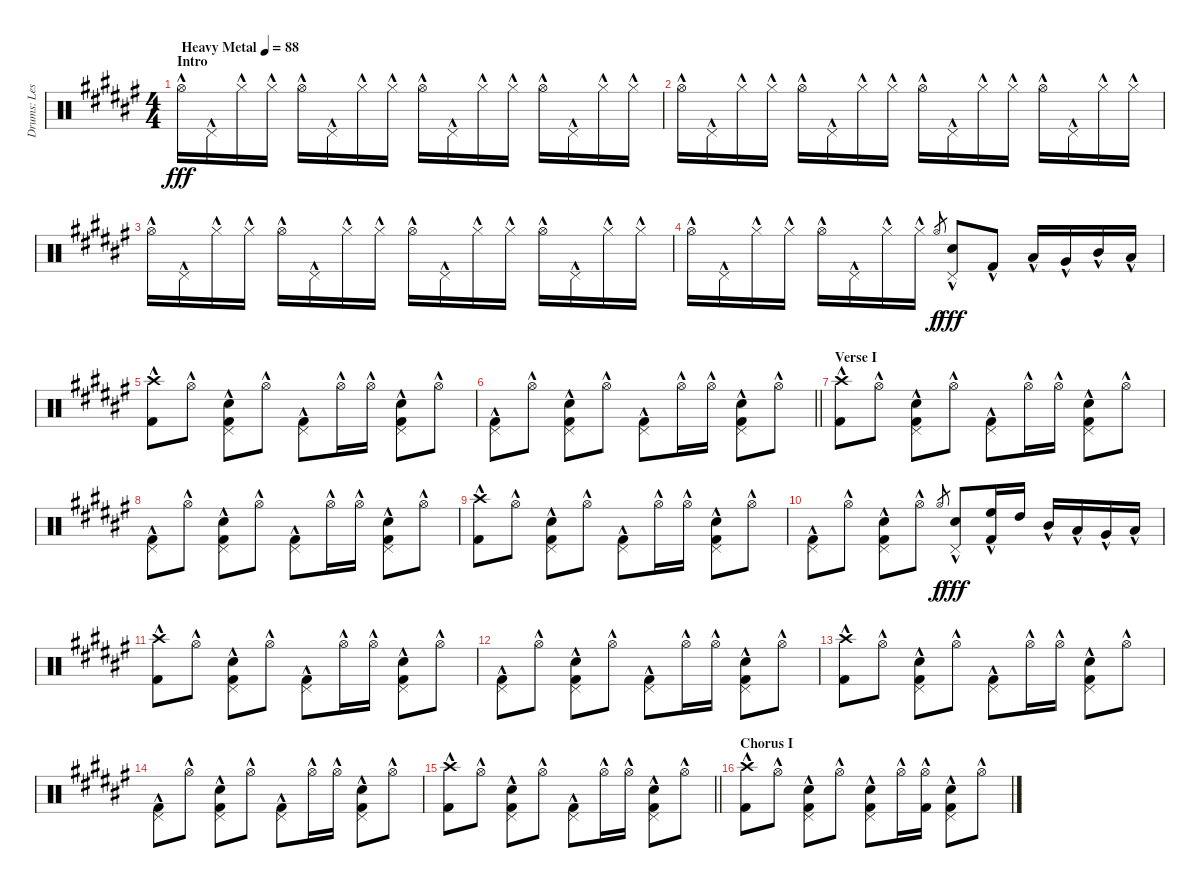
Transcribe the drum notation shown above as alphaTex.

\track ("Drums: Les" "Drums: Les") {instrument percussion}
\staff {score}
\articulation defaults
\ts (4 4)
\section ("" "Intro")
\tempo (88 "Heavy Metal")
\clef neutral
\ks f# "Hi-Hat (open)"{hac}.16{dy fff} "Pedal Hi-Hat (hit)"{hac}.16 "Hi-Hat (closed)"{hac}.16 "Hi-Hat (closed)"{hac}.16 "Hi-Hat (open)"{hac}.16 "Pedal Hi-Hat (hit)"{hac}.16 "Hi-Hat (closed)"{hac}.16 "Hi-Hat (closed)"{hac}.16 "Hi-Hat (open)"{hac}.16 "Pedal Hi-Hat (hit)"{hac}.16 "Hi-Hat (closed)"{hac}.16 "Hi-Hat (closed)"{hac}.16 "Hi-Hat (open)"{hac}.16 "Pedal Hi-Hat (hit)"{hac}.16 "Hi-Hat (closed)"{hac}.16 "Hi-Hat (closed)"{hac}.16
|
"Hi-Hat (open)"{hac}.16 "Pedal Hi-Hat (hit)"{hac}.16 "Hi-Hat (closed)"{hac}.16 "Hi-Hat (closed)"{hac}.16 "Hi-Hat (open)"{hac}.16 "Pedal Hi-Hat (hit)"{hac}.16 "Hi-Hat (closed)"{hac}.16 "Hi-Hat (closed)"{hac}.16 "Hi-Hat (open)"{hac}.16 "Pedal Hi-Hat (hit)"{hac}.16 "Hi-Hat (closed)"{hac}.16 "Hi-Hat (closed)"{hac}.16 "Hi-Hat (open)"{hac}.16 "Pedal Hi-Hat (hit)"{hac}.16 "Hi-Hat (closed)"{hac}.16 "Hi-Hat (closed)"{hac}.16 |
"Hi-Hat (open)"{hac}.16 "Pedal Hi-Hat (hit)"{hac}.16 "Hi-Hat (closed)"{hac}.16 "Hi-Hat (closed)"{hac}.16 "Hi-Hat (open)"{hac}.16 "Pedal Hi-Hat (hit)"{hac}.16 "Hi-Hat (closed)"{hac}.16 "Hi-Hat (closed)"{hac}.16 "Hi-Hat (open)"{hac}.16 "Pedal Hi-Hat (hit)"{hac}.16 "Hi-Hat (closed)"{hac}.16 "Hi-Hat (closed)"{hac}.16 "Hi-Hat (open)"{hac}.16 "Pedal Hi-Hat (hit)"{hac}.16 "Hi-Hat (closed)"{hac}.16 "Hi-Hat (closed)"{hac}.16 |
"Hi-Hat (open)"{hac}.16 "Pedal Hi-Hat (hit)"{hac}.16 "Hi-Hat (closed)"{hac}.16 "Hi-Hat (closed)"{hac}.16 "Hi-Hat (open)"{hac}.16 "Pedal Hi-Hat (hit)"{hac}.16 "Hi-Hat (closed)"{hac}.16 "Hi-Hat (closed)"{hac}.16 "Hi-Hat (open)".8{gr dy f} ("Pedal Hi-Hat (hit)"{hac} "Snare (hit) 2"{hac}).8{dy fff} "Kick (hit) 2"{hac}.8 "Low Tom (hit)"{hac}.16 "Very Low Tom (hit)"{hac}.16 "Mid Tom (hit)"{hac}.16 "Low Floor Tom (hit)"{hac}.16 |
("Crash high (hit)"{hac} "Kick (hit) 2"{hac}).8 "Hi-Hat (open)"{hac}.8 ("Pedal Hi-Hat (hit)"{hac} "Electric Snare (hit)"{hac} "Kick (hit) 2"{hac}).8 "Hi-Hat (open)"{hac}.8 ("Pedal Hi-Hat (hit)"{hac} "Kick (hit) 2"{hac}).8 "Hi-Hat (open)"{hac}.16 "Hi-Hat (open)"{hac}.16 ("Pedal Hi-Hat (hit)"{hac} "Electric Snare (hit)"{hac} "Kick (hit) 2"{hac}).8 "Hi-Hat (open)"{hac}.8 |
\barLineRight lightlight
("Pedal Hi-Hat (hit)"{hac} "Kick (hit) 2"{hac}).8 "Hi-Hat (open)"{hac}.8 ("Pedal Hi-Hat (hit)"{hac} "Electric Snare (hit)"{hac} "Kick (hit) 2"{hac}).8 "Hi-Hat (open)"{hac}.8 ("Pedal Hi-Hat (hit)"{hac} "Kick (hit) 2"{hac}).8 "Hi-Hat (open)"{hac}.16 "Hi-Hat (open)"{hac}.16 ("Pedal Hi-Hat (hit)"{hac} "Electric Snare (hit)"{hac} "Kick (hit) 2"{hac}).8 "Hi-Hat (open)"{hac}.8 |
\section ("" "Verse I")
("Crash high (hit)"{hac} "Kick (hit) 2"{hac}).8 "Hi-Hat (open)"{hac}.8 ("Pedal Hi-Hat (hit)"{hac} "Electric Snare (hit)"{hac} "Kick (hit) 2"{hac}).8 "Hi-Hat (open)"{hac}.8 ("Pedal Hi-Hat (hit)"{hac} "Kick (hit) 2"{hac}).8 "Hi-Hat (open)"{hac}.16 "Hi-Hat (open)"{hac}.16 ("Pedal Hi-Hat (hit)"{hac} "Electric Snare (hit)"{hac} "Kick (hit) 2"{hac}).8 "Hi-Hat (open)"{hac}.8 |
("Pedal Hi-Hat (hit)"{hac} "Kick (hit) 2"{hac}).8 "Hi-Hat (open)"{hac}.8 ("Pedal Hi-Hat (hit)"{hac} "Electric Snare (hit)"{hac} "Kick (hit) 2"{hac}).8 "Hi-Hat (open)"{hac}.8 ("Pedal Hi-Hat (hit)"{hac} "Kick (hit) 2"{hac}).8 "Hi-Hat (open)"{hac}.16 "Hi-Hat (open)"{hac}.16 ("Pedal Hi-Hat (hit)"{hac} "Electric Snare (hit)"{hac} "Kick (hit) 2"{hac}).8 "Hi-Hat (open)"{hac}.8 |
("Crash high (hit)"{hac} "Kick (hit) 2"{hac}).8 "Hi-Hat (open)"{hac}.8 ("Pedal Hi-Hat (hit)"{hac} "Electric Snare (hit)"{hac} "Kick (hit) 2"{hac}).8 "Hi-Hat (open)"{hac}.8 ("Pedal Hi-Hat (hit)"{hac} "Kick (hit) 2"{hac}).8 "Hi-Hat (open)"{hac}.16 "Hi-Hat (open)"{hac}.16 ("Pedal Hi-Hat (hit)"{hac} "Electric Snare (hit)"{hac} "Kick (hit) 2"{hac}).8 "Hi-Hat (open)"{hac}.8 |
("Pedal Hi-Hat (hit)"{hac} "Kick (hit) 2"{hac}).8 "Hi-Hat (open)"{hac}.8 ("Pedal Hi-Hat (hit)"{hac} "Electric Snare (hit)"{hac} "Kick (hit) 2"{hac}).8 "Hi-Hat (open)"{hac}.8 "Hi-Hat (open)".8{gr dy f} ("Pedal Hi-Hat (hit)"{hac} "Snare (hit) 2"{hac}).8{dy fff} ("High Floor Tom (hit)" "Kick (hit) 2"{hac}).16 "High Tom (hit)".16 "Mid Tom (hit)"{hac}.16 "Low Tom (hit)"{hac}.16 "Very Low Tom (hit)"{hac}.16 "Low Floor Tom (hit)"{hac}.16 |
("Crash high (hit)"{hac} "Kick (hit) 2"{hac}).8 "Hi-Hat (open)"{hac}.8 ("Pedal Hi-Hat (hit)"{hac} "Electric Snare (hit)"{hac} "Kick (hit) 2"{hac}).8 "Hi-Hat (open)"{hac}.8 ("Pedal Hi-Hat (hit)"{hac} "Kick (hit) 2"{hac}).8 "Hi-Hat (open)"{hac}.16 "Hi-Hat (open)"{hac}.16 ("Pedal Hi-Hat (hit)"{hac} "Electric Snare (hit)"{hac} "Kick (hit) 2"{hac}).8 "Hi-Hat (open)"{hac}.8 |
("Pedal Hi-Hat (hit)"{hac} "Kick (hit) 2"{hac}).8 "Hi-Hat (open)"{hac}.8 ("Pedal Hi-Hat (hit)"{hac} "Electric Snare (hit)"{hac} "Kick (hit) 2"{hac}).8 "Hi-Hat (open)"{hac}.8 ("Pedal Hi-Hat (hit)"{hac} "Kick (hit) 2"{hac}).8 "Hi-Hat (open)"{hac}.16 "Hi-Hat (open)"{hac}.16 ("Pedal Hi-Hat (hit)"{hac} "Electric Snare (hit)"{hac} "Kick (hit) 2"{hac}).8 "Hi-Hat (open)"{hac}.8 |
("Crash high (hit)"{hac} "Kick (hit) 2"{hac}).8 "Hi-Hat (open)"{hac}.8 ("Pedal Hi-Hat (hit)"{hac} "Electric Snare (hit)"{hac} "Kick (hit) 2"{hac}).8 "Hi-Hat (open)"{hac}.8 ("Pedal Hi-Hat (hit)"{hac} "Kick (hit) 2"{hac}).8 "Hi-Hat (open)"{hac}.16 "Hi-Hat (open)"{hac}.16 ("Pedal Hi-Hat (hit)"{hac} "Electric Snare (hit)"{hac} "Kick (hit) 2"{hac}).8 "Hi-Hat (open)"{hac}.8 |
("Pedal Hi-Hat (hit)"{hac} "Kick (hit) 2"{hac}).8 "Hi-Hat (open)"{hac}.8 ("Pedal Hi-Hat (hit)"{hac} "Electric Snare (hit)"{hac} "Kick (hit) 2"{hac}).8 "Hi-Hat (open)"{hac}.8 ("Pedal Hi-Hat (hit)"{hac} "Kick (hit) 2"{hac}).8 "Hi-Hat (open)"{hac}.16 "Hi-Hat (open)"{hac}.16 ("Pedal Hi-Hat (hit)"{hac} "Electric Snare (hit)"{hac} "Kick (hit) 2"{hac}).8 "Hi-Hat (open)"{hac}.8 |
\barLineRight lightlight
("Crash high (hit)"{hac} "Kick (hit) 2"{hac}).8 "Hi-Hat (open)"{hac}.8 ("Pedal Hi-Hat (hit)"{hac} "Electric Snare (hit)"{hac} "Kick (hit) 2"{hac}).8 "Hi-Hat (open)"{hac}.8 ("Pedal Hi-Hat (hit)"{hac} "Kick (hit) 2"{hac}).8 "Hi-Hat (open)"{hac}.16 "Hi-Hat (open)"{hac}.16 ("Pedal Hi-Hat (hit)"{hac} "Electric Snare (hit)"{hac} "Kick (hit) 2"{hac}).8 "Hi-Hat (open)"{hac}.8 |
\section ("" "Chorus I")
("Crash high (hit)"{hac} "Kick (hit) 2"{hac}).8 "Hi-Hat (open)"{hac}.8 ("Pedal Hi-Hat (hit)"{hac} "Snare (hit) 2"{hac} "Kick (hit) 2"{hac}).8 "Hi-Hat (open)"{hac}.8 ("Pedal Hi-Hat (hit)"{hac} "Snare (hit) 2"{hac} "Kick (hit) 2"{hac}).8 "Hi-Hat (open)"{hac}.16 ("Hi-Hat (open)"{hac} "Kick (hit) 2"{hac}).16 ("Pedal Hi-Hat (hit)"{hac} "Snare (hit) 2"{hac} "Kick (hit) 2"{hac}).8 "Hi-Hat (open)"{hac}.8
